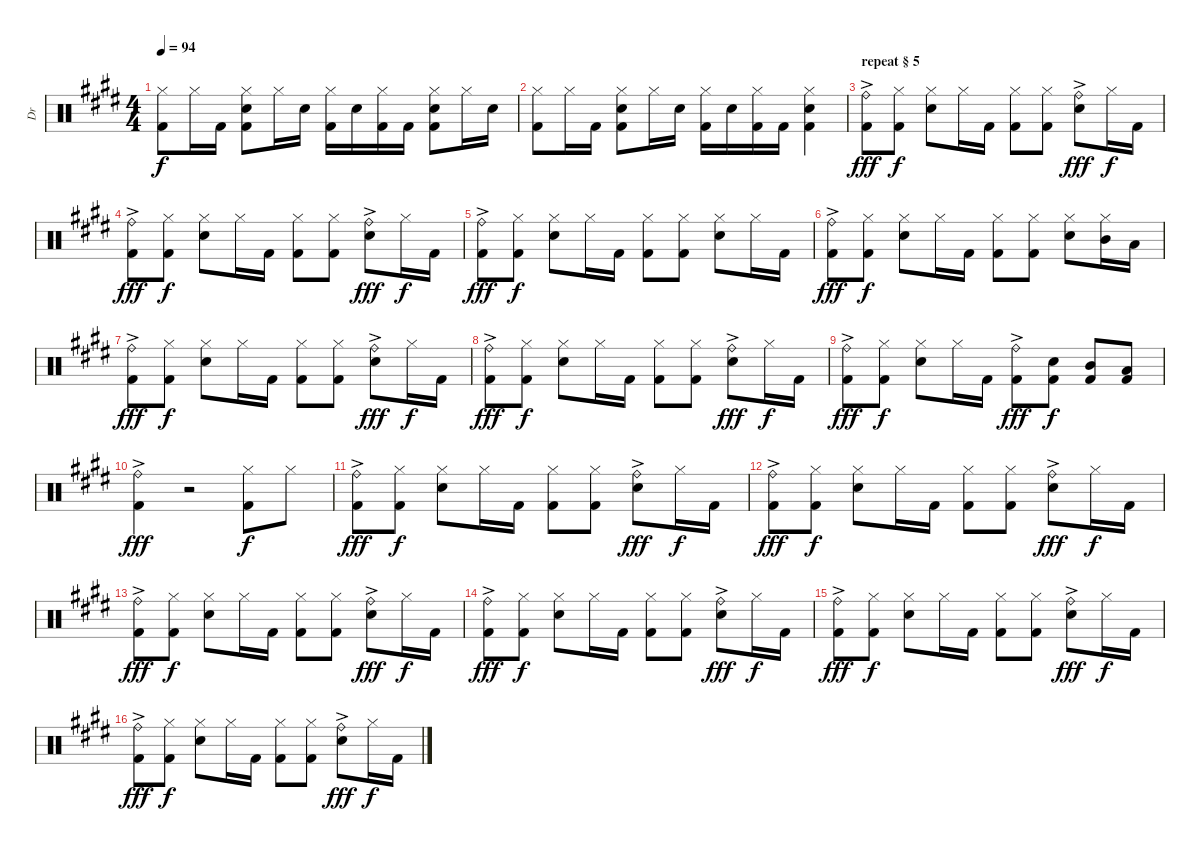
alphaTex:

\track ("Dr" "Dr") {instrument percussion}
\staff {score}
\articulation defaults
\ts (4 4)
\tempo 94
\clef neutral
\ks e
("Hi-Hat (closed)" "Kick (hit) 2").8{dy f} "Hi-Hat (closed)".16 "Kick (hit) 2".16 ("Hi-Hat (closed)" "Electric Snare (hit)" "Kick (hit) 2").8 "Hi-Hat (closed)".16 "Electric Snare (hit)".16 ("Hi-Hat (closed)" "Kick (hit) 2").16 "Electric Snare (hit)".16 ("Hi-Hat (closed)" "Kick (hit) 2").16 "Kick (hit) 2".16 ("Hi-Hat (closed)" "Electric Snare (hit)" "Kick (hit) 2").8 "Hi-Hat (closed)".16 "Electric Snare (hit)".16 |
("Hi-Hat (closed)" "Kick (hit) 2").8 "Hi-Hat (closed)".16 "Kick (hit) 2".16 ("Hi-Hat (closed)" "Electric Snare (hit)" "Kick (hit) 2").8 "Hi-Hat (closed)".16 "Electric Snare (hit)".16 ("Hi-Hat (closed)" "Kick (hit) 2").16 "Electric Snare (hit)".16 ("Hi-Hat (closed)" "Kick (hit) 2").16 "Kick (hit) 2".16 ("Hi-Hat (closed)" "Electric Snare (hit)" "Kick (hit) 2").4 |
\section ("" "repeat § 5")
("Ride (bell)"{ac} "Kick (hit) 2"{ac}).8{dy fff} ("Hi-Hat (closed)" "Kick (hit) 2").8{dy f} ("Hi-Hat (closed)" "Electric Snare (hit)").8 "Hi-Hat (closed)".16 "Kick (hit) 2".16 ("Hi-Hat (closed)" "Kick (hit) 2").8 ("Hi-Hat (closed)" "Kick (hit) 2").8 ("Ride (bell)"{ac} "Electric Snare (hit)"{ac}).8{dy fff} "Hi-Hat (closed)".16{dy f} "Kick (hit) 2".16 |
("Ride (bell)"{ac} "Kick (hit) 2"{ac}).8{dy fff} ("Hi-Hat (closed)" "Kick (hit) 2").8{dy f} ("Hi-Hat (closed)" "Electric Snare (hit)").8 "Hi-Hat (closed)".16 "Kick (hit) 2".16 ("Hi-Hat (closed)" "Kick (hit) 2").8 ("Hi-Hat (closed)" "Kick (hit) 2").8 ("Ride (bell)"{ac} "Electric Snare (hit)"{ac}).8{dy fff} "Hi-Hat (closed)".16{dy f} "Kick (hit) 2".16 |
("Ride (bell)"{ac} "Kick (hit) 2"{ac}).8{dy fff} ("Hi-Hat (closed)" "Kick (hit) 2").8{dy f} ("Hi-Hat (closed)" "Electric Snare (hit)").8 "Hi-Hat (closed)".16 "Kick (hit) 2".16 ("Hi-Hat (closed)" "Kick (hit) 2").8 ("Hi-Hat (closed)" "Kick (hit) 2").8 ("Hi-Hat (closed)" "Electric Snare (hit)").8 "Hi-Hat (closed)".16 "Kick (hit) 2".16 |
("Ride (bell)"{ac} "Kick (hit) 2"{ac}).8{dy fff} ("Hi-Hat (closed)" "Kick (hit) 2").8{dy f} ("Hi-Hat (closed)" "Electric Snare (hit)").8 "Hi-Hat (closed)".16 "Kick (hit) 2".16 ("Hi-Hat (closed)" "Kick (hit) 2").8 ("Hi-Hat (closed)" "Kick (hit) 2").8 ("Hi-Hat (closed)" "Electric Snare (hit)").8 ("Hi-Hat (closed)" "Mid Tom (hit)").16 "Low Tom (hit)".16 |
("Ride (bell)"{ac} "Kick (hit) 2"{ac}).8{dy fff} ("Hi-Hat (closed)" "Kick (hit) 2").8{dy f} ("Hi-Hat (closed)" "Electric Snare (hit)").8 "Hi-Hat (closed)".16 "Kick (hit) 2".16 ("Hi-Hat (closed)" "Kick (hit) 2").8 ("Hi-Hat (closed)" "Kick (hit) 2").8 ("Ride (bell)"{ac} "Electric Snare (hit)"{ac}).8{dy fff} "Hi-Hat (closed)".16{dy f} "Kick (hit) 2".16 |
("Ride (bell)"{ac} "Kick (hit) 2"{ac}).8{dy fff} ("Hi-Hat (closed)" "Kick (hit) 2").8{dy f} ("Hi-Hat (closed)" "Electric Snare (hit)").8 "Hi-Hat (closed)".16 "Kick (hit) 2".16 ("Hi-Hat (closed)" "Kick (hit) 2").8 ("Hi-Hat (closed)" "Kick (hit) 2").8 ("Ride (bell)"{ac} "Electric Snare (hit)"{ac}).8{dy fff} "Hi-Hat (closed)".16{dy f} "Kick (hit) 2".16 |
("Ride (bell)"{ac} "Kick (hit) 2"{ac}).8{dy fff} ("Hi-Hat (closed)" "Kick (hit) 2").8{dy f} ("Hi-Hat (closed)" "Electric Snare (hit)").8 "Hi-Hat (closed)".16 "Kick (hit) 2".16 ("Ride (bell)"{ac} "Kick (hit) 2"{ac}).8{dy fff} ("Electric Snare (hit)" "Kick (hit) 2").8{dy f} ("Mid Tom (hit)" "Kick (hit) 2").8 ("Low Tom (hit)" "Kick (hit) 2").8 |
("Ride (bell)"{ac} "Kick (hit) 2"{ac}).4{dy fff} r.2 ("Hi-Hat (closed)" "Kick (hit) 2").8{dy f} "Hi-Hat (closed)".8 |
("Ride (bell)"{ac} "Kick (hit) 2"{ac}).8{dy fff} ("Hi-Hat (closed)" "Kick (hit) 2").8{dy f} ("Hi-Hat (closed)" "Electric Snare (hit)").8 "Hi-Hat (closed)".16 "Kick (hit) 2".16 ("Hi-Hat (closed)" "Kick (hit) 2").8 ("Hi-Hat (closed)" "Kick (hit) 2").8 ("Ride (bell)"{ac} "Electric Snare (hit)"{ac}).8{dy fff} "Hi-Hat (closed)".16{dy f} "Kick (hit) 2".16 |
("Ride (bell)"{ac} "Kick (hit) 2"{ac}).8{dy fff} ("Hi-Hat (closed)" "Kick (hit) 2").8{dy f} ("Hi-Hat (closed)" "Electric Snare (hit)").8 "Hi-Hat (closed)".16 "Kick (hit) 2".16 ("Hi-Hat (closed)" "Kick (hit) 2").8 ("Hi-Hat (closed)" "Kick (hit) 2").8 ("Ride (bell)"{ac} "Electric Snare (hit)"{ac}).8{dy fff} "Hi-Hat (closed)".16{dy f} "Kick (hit) 2".16 |
("Ride (bell)"{ac} "Kick (hit) 2"{ac}).8{dy fff} ("Hi-Hat (closed)" "Kick (hit) 2").8{dy f} ("Hi-Hat (closed)" "Electric Snare (hit)").8 "Hi-Hat (closed)".16 "Kick (hit) 2".16 ("Hi-Hat (closed)" "Kick (hit) 2").8 ("Hi-Hat (closed)" "Kick (hit) 2").8 ("Ride (bell)"{ac} "Electric Snare (hit)"{ac}).8{dy fff} "Hi-Hat (closed)".16{dy f} "Kick (hit) 2".16 |
("Ride (bell)"{ac} "Kick (hit) 2"{ac}).8{dy fff} ("Hi-Hat (closed)" "Kick (hit) 2").8{dy f} ("Hi-Hat (closed)" "Electric Snare (hit)").8 "Hi-Hat (closed)".16 "Kick (hit) 2".16 ("Hi-Hat (closed)" "Kick (hit) 2").8 ("Hi-Hat (closed)" "Kick (hit) 2").8 ("Ride (bell)"{ac} "Electric Snare (hit)"{ac}).8{dy fff} "Hi-Hat (closed)".16{dy f} "Kick (hit) 2".16 |
("Ride (bell)"{ac} "Kick (hit) 2"{ac}).8{dy fff} ("Hi-Hat (closed)" "Kick (hit) 2").8{dy f} ("Hi-Hat (closed)" "Electric Snare (hit)").8 "Hi-Hat (closed)".16 "Kick (hit) 2".16 ("Hi-Hat (closed)" "Kick (hit) 2").8 ("Hi-Hat (closed)" "Kick (hit) 2").8 ("Ride (bell)"{ac} "Electric Snare (hit)"{ac}).8{dy fff} "Hi-Hat (closed)".16{dy f} "Kick (hit) 2".16 |
("Ride (bell)"{ac} "Kick (hit) 2"{ac}).8{dy fff} ("Hi-Hat (closed)" "Kick (hit) 2").8{dy f} ("Hi-Hat (closed)" "Electric Snare (hit)").8 "Hi-Hat (closed)".16 "Kick (hit) 2".16 ("Hi-Hat (closed)" "Kick (hit) 2").8 ("Hi-Hat (closed)" "Kick (hit) 2").8 ("Ride (bell)"{ac} "Electric Snare (hit)"{ac}).8{dy fff} "Hi-Hat (closed)".16{dy f} "Kick (hit) 2".16
